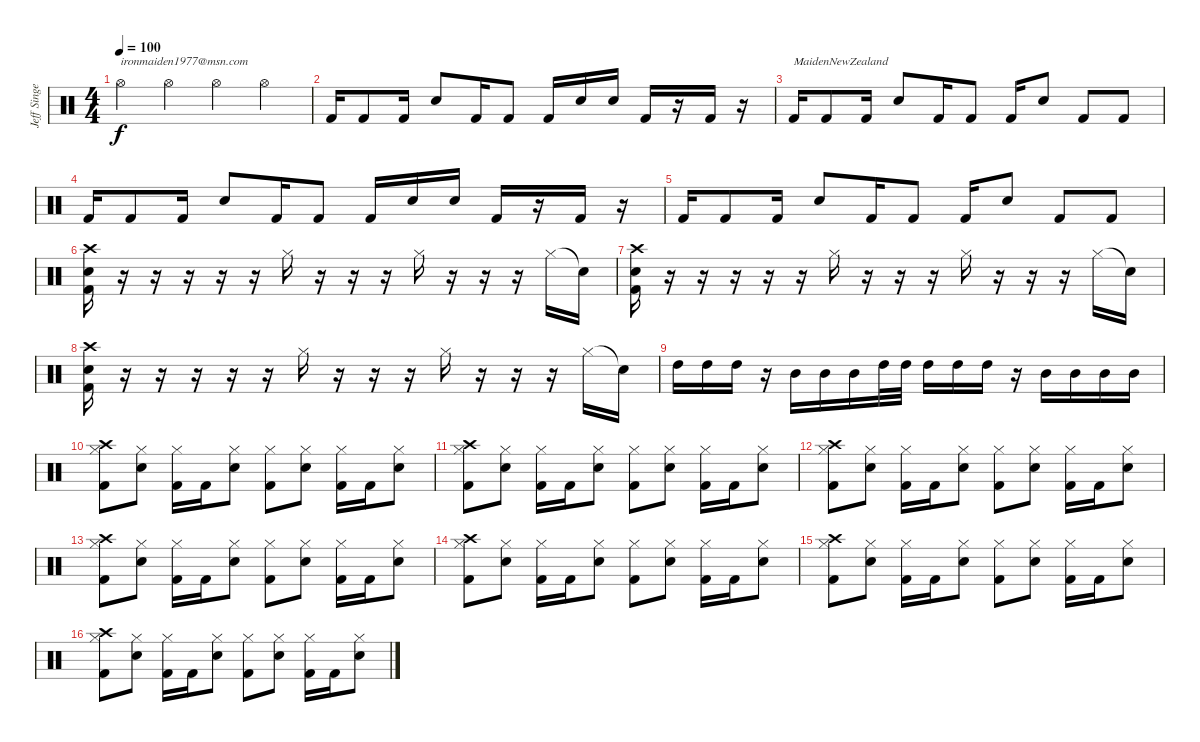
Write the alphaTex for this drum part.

\track ("Jeff Singer" "Jeff Singe") {instrument percussion}
\staff {score}
\articulation defaults
\ts (4 4)
\tempo 100
\clef neutral
\ks c "Hi-Hat (open)".4{txt "ironmaiden1977@msn.com" dy f} "Hi-Hat (open)".4 "Hi-Hat (open)".4 "Hi-Hat (open)".4
|
"Kick (hit) 2".16 "Kick (hit) 2".8 "Kick (hit) 2".16 "Snare (hit) 2".8 "Kick (hit) 2".16 "Kick (hit) 2".8 "Kick (hit) 2".16 "Snare (hit) 2".16 "Snare (hit) 2".16 "Kick (hit) 2".16 r.16 "Kick (hit) 2".16 r.16 |
"Kick (hit) 2".16{txt "MaidenNewZealand"} "Kick (hit) 2".8 "Kick (hit) 2".16 "Snare (hit) 2".8 "Kick (hit) 2".16 "Kick (hit) 2".8 "Kick (hit) 2".16 "Snare (hit) 2".8 "Kick (hit) 2".8 "Kick (hit) 2".8 |
"Kick (hit) 2".16 "Kick (hit) 2".8 "Kick (hit) 2".16 "Snare (hit) 2".8 "Kick (hit) 2".16 "Kick (hit) 2".8 "Kick (hit) 2".16 "Snare (hit) 2".16 "Snare (hit) 2".16 "Kick (hit) 2".16 r.16 "Kick (hit) 2".16 r.16 |
"Kick (hit) 2".16 "Kick (hit) 2".8 "Kick (hit) 2".16 "Snare (hit) 2".8 "Kick (hit) 2".16 "Kick (hit) 2".8 "Kick (hit) 2".16 "Snare (hit) 2".8 "Kick (hit) 2".8 "Kick (hit) 2".8 |
("Kick (hit) 2" "Snare (hit) 2" "Crash high (hit)").16 r.16 r.16 r.16 r.16 r.16 "Hi-Hat (closed)".16 r.16 r.16 r.16 "Hi-Hat (closed)".16 r.16 r.16 r.16 "Hi-Hat (closed)".16 "Snare (hit)"{t}.16 |
("Kick (hit) 2" "Snare (hit) 2" "Crash high (hit)").16 r.16 r.16 r.16 r.16 r.16 "Hi-Hat (closed)".16 r.16 r.16 r.16 "Hi-Hat (closed)".16 r.16 r.16 r.16 "Hi-Hat (closed)".16 "Snare (hit)"{t}.16 |
("Kick (hit) 2" "Snare (hit) 2" "Crash high (hit)").16 r.16 r.16 r.16 r.16 r.16 "Hi-Hat (closed)".16 r.16 r.16 r.16 "Hi-Hat (closed)".16 r.16 r.16 r.16 "Hi-Hat (closed)".16 "Snare (hit)"{t}.16 |
"High Tom (hit)".16 "High Tom (hit)".16 "High Tom (hit)".16 r.16 "Mid Tom (hit)".16 "Mid Tom (hit)".16 "Mid Tom (hit)".16 "High Tom (hit)".32 "High Tom (hit)".32 "High Tom (hit)".16 "High Tom (hit)".16 "High Tom (hit)".16 r.16 "Mid Tom (hit)".16 "Mid Tom (hit)".16 "Mid Tom (hit)".16 "Mid Tom (hit)".16 |
("Hi-Hat (closed)" "Kick (hit) 2" "Crash high (hit)").8 ("Hi-Hat (closed)" "Snare (hit) 2").8 ("Hi-Hat (closed)" "Kick (hit) 2").16 "Kick (hit) 2".16 ("Hi-Hat (closed)" "Snare (hit) 2").8 ("Hi-Hat (closed)" "Kick (hit) 2").8 ("Hi-Hat (closed)" "Snare (hit) 2").8 ("Hi-Hat (closed)" "Kick (hit) 2").16 "Kick (hit) 2".16 ("Hi-Hat (closed)" "Snare (hit) 2").8 |
("Hi-Hat (closed)" "Kick (hit) 2" "Crash high (hit)").8 ("Hi-Hat (closed)" "Snare (hit) 2").8 ("Hi-Hat (closed)" "Kick (hit) 2").16 "Kick (hit) 2".16 ("Hi-Hat (closed)" "Snare (hit) 2").8 ("Hi-Hat (closed)" "Kick (hit) 2").8 ("Hi-Hat (closed)" "Snare (hit) 2").8 ("Hi-Hat (closed)" "Kick (hit) 2").16 "Kick (hit) 2".16 ("Hi-Hat (closed)" "Snare (hit) 2").8 |
("Hi-Hat (closed)" "Kick (hit) 2" "Crash high (hit)").8 ("Hi-Hat (closed)" "Snare (hit) 2").8 ("Hi-Hat (closed)" "Kick (hit) 2").16 "Kick (hit) 2".16 ("Hi-Hat (closed)" "Snare (hit) 2").8 ("Hi-Hat (closed)" "Kick (hit) 2").8 ("Hi-Hat (closed)" "Snare (hit) 2").8 ("Hi-Hat (closed)" "Kick (hit) 2").16 "Kick (hit) 2".16 ("Hi-Hat (closed)" "Snare (hit) 2").8 |
("Hi-Hat (closed)" "Kick (hit) 2" "Crash high (hit)").8 ("Hi-Hat (closed)" "Snare (hit) 2").8 ("Hi-Hat (closed)" "Kick (hit) 2").16 "Kick (hit) 2".16 ("Hi-Hat (closed)" "Snare (hit) 2").8 ("Hi-Hat (closed)" "Kick (hit) 2").8 ("Hi-Hat (closed)" "Snare (hit) 2").8 ("Hi-Hat (closed)" "Kick (hit) 2").16 "Kick (hit) 2".16 ("Hi-Hat (closed)" "Snare (hit) 2").8 |
("Hi-Hat (closed)" "Kick (hit) 2" "Crash high (hit)").8 ("Hi-Hat (closed)" "Snare (hit) 2").8 ("Hi-Hat (closed)" "Kick (hit) 2").16 "Kick (hit) 2".16 ("Hi-Hat (closed)" "Snare (hit) 2").8 ("Hi-Hat (closed)" "Kick (hit) 2").8 ("Hi-Hat (closed)" "Snare (hit) 2").8 ("Hi-Hat (closed)" "Kick (hit) 2").16 "Kick (hit) 2".16 ("Hi-Hat (closed)" "Snare (hit) 2").8 |
("Hi-Hat (closed)" "Kick (hit) 2" "Crash high (hit)").8 ("Hi-Hat (closed)" "Snare (hit) 2").8 ("Hi-Hat (closed)" "Kick (hit) 2").16 "Kick (hit) 2".16 ("Hi-Hat (closed)" "Snare (hit) 2").8 ("Hi-Hat (closed)" "Kick (hit) 2").8 ("Hi-Hat (closed)" "Snare (hit) 2").8 ("Hi-Hat (closed)" "Kick (hit) 2").16 "Kick (hit) 2".16 ("Hi-Hat (closed)" "Snare (hit) 2").8 |
("Hi-Hat (closed)" "Kick (hit) 2" "Crash high (hit)").8 ("Hi-Hat (closed)" "Snare (hit) 2").8 ("Hi-Hat (closed)" "Kick (hit) 2").16 "Kick (hit) 2".16 ("Hi-Hat (closed)" "Snare (hit) 2").8 ("Hi-Hat (closed)" "Kick (hit) 2").8 ("Hi-Hat (closed)" "Snare (hit) 2").8 ("Hi-Hat (closed)" "Kick (hit) 2").16 "Kick (hit) 2".16 ("Hi-Hat (closed)" "Snare (hit) 2").8
